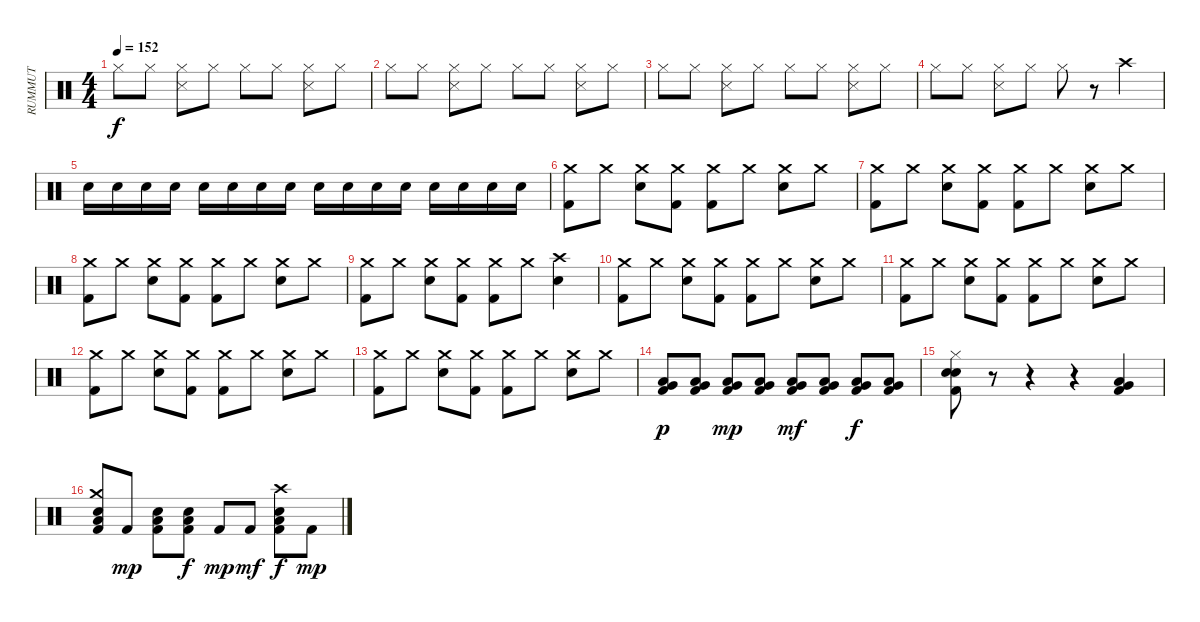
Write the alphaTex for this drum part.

\track ("RUMMUT" "RUMMUT") {instrument percussion}
\staff {score}
\articulation defaults
\ts (4 4)
\tempo 152
\clef neutral
\ks c "Hi-Hat (closed)".8{dy f} "Hi-Hat (closed)".8
("Hi-Hat (closed)" "Snare (side stick) 3").8 "Hi-Hat (closed)".8 "Hi-Hat (closed)".8 "Hi-Hat (closed)".8 ("Hi-Hat (closed)" "Snare (side stick) 3").8 "Hi-Hat (closed)".8 |
"Hi-Hat (closed)".8 "Hi-Hat (closed)".8 ("Hi-Hat (closed)" "Snare (side stick) 3").8 "Hi-Hat (closed)".8 "Hi-Hat (closed)".8 "Hi-Hat (closed)".8 ("Hi-Hat (closed)" "Snare (side stick) 3").8 "Hi-Hat (closed)".8 |
"Hi-Hat (closed)".8 "Hi-Hat (closed)".8 ("Hi-Hat (closed)" "Snare (side stick) 3").8 "Hi-Hat (closed)".8 "Hi-Hat (closed)".8 "Hi-Hat (closed)".8 ("Hi-Hat (closed)" "Snare (side stick) 3").8 "Hi-Hat (closed)".8 |
"Hi-Hat (closed)".8 "Hi-Hat (closed)".8 ("Hi-Hat (closed)" "Snare (side stick) 3").8 "Hi-Hat (closed)".8 "Hi-Hat (closed)".8 r.8 "Crash high (hit)".4 |
"Electric Snare (hit)".16{volume 9} "Electric Snare (hit)".16 "Electric Snare (hit)".16 "Electric Snare (hit)".16 "Electric Snare (hit)".16{volume 10} "Electric Snare (hit)".16 "Electric Snare (hit)".16 "Electric Snare (hit)".16 "Electric Snare (hit)".16{volume 11} "Electric Snare (hit)".16 "Electric Snare (hit)".16 "Electric Snare (hit)".16 "Electric Snare (hit)".16{volume 12} "Electric Snare (hit)".16 "Electric Snare (hit)".16 "Electric Snare (hit)".16 |
("Crash medium (hit)" "Kick (hit) 2").8 "Crash medium (hit)".8 ("Crash medium (hit)" "Electric Snare (hit)").8 ("Crash medium (hit)" "Kick (hit) 2").8 ("Crash medium (hit)" "Kick (hit) 2").8 "Crash medium (hit)".8 ("Crash medium (hit)" "Electric Snare (hit)").8 "Crash medium (hit)".8 |
("Crash medium (hit)" "Kick (hit) 2").8 "Crash medium (hit)".8 ("Crash medium (hit)" "Electric Snare (hit)").8 ("Crash medium (hit)" "Kick (hit) 2").8 ("Crash medium (hit)" "Kick (hit) 2").8 "Crash medium (hit)".8 ("Crash medium (hit)" "Electric Snare (hit)").8 "Crash medium (hit)".8 |
("Crash medium (hit)" "Kick (hit) 2").8 "Crash medium (hit)".8 ("Crash medium (hit)" "Electric Snare (hit)").8 ("Crash medium (hit)" "Kick (hit) 2").8 ("Crash medium (hit)" "Kick (hit) 2").8 "Crash medium (hit)".8 ("Crash medium (hit)" "Electric Snare (hit)").8 "Crash medium (hit)".8 |
("Crash medium (hit)" "Kick (hit) 2").8 "Crash medium (hit)".8 ("Crash medium (hit)" "Electric Snare (hit)").8 ("Crash medium (hit)" "Kick (hit) 2").8 ("Crash medium (hit)" "Kick (hit) 2").8 "Crash medium (hit)".8 ("Crash high (hit)" "Electric Snare (hit)").4 |
("Crash medium (hit)" "Kick (hit) 2").8 "Crash medium (hit)".8 ("Crash medium (hit)" "Electric Snare (hit)").8 ("Crash medium (hit)" "Kick (hit) 2").8 ("Crash medium (hit)" "Kick (hit) 2").8 "Crash medium (hit)".8 ("Crash medium (hit)" "Electric Snare (hit)").8 "Crash medium (hit)".8 |
("Crash medium (hit)" "Kick (hit) 2").8 "Crash medium (hit)".8 ("Crash medium (hit)" "Electric Snare (hit)").8 ("Crash medium (hit)" "Kick (hit) 2").8 ("Crash medium (hit)" "Kick (hit) 2").8 "Crash medium (hit)".8 ("Crash medium (hit)" "Electric Snare (hit)").8 "Crash medium (hit)".8 |
("Crash medium (hit)" "Kick (hit) 2").8 "Crash medium (hit)".8 ("Crash medium (hit)" "Electric Snare (hit)").8 ("Crash medium (hit)" "Kick (hit) 2").8 ("Crash medium (hit)" "Kick (hit) 2").8 "Crash medium (hit)".8 ("Crash medium (hit)" "Electric Snare (hit)").8 "Crash medium (hit)".8 |
("Crash medium (hit)" "Kick (hit) 2").8 "Crash medium (hit)".8 ("Crash medium (hit)" "Electric Snare (hit)").8 ("Crash medium (hit)" "Kick (hit) 2").8 ("Crash medium (hit)" "Kick (hit) 2").8 "Crash medium (hit)".8 ("Crash medium (hit)" "Electric Snare (hit)").8 "Crash medium (hit)".8 |
("Low Tom (hit)" "Very Low Tom (hit)" "Kick (hit) 2").8{dy p} ("Low Tom (hit)" "Very Low Tom (hit)" "Kick (hit) 2").8 ("Low Tom (hit)" "Very Low Tom (hit)" "Kick (hit) 2").8{dy mp} ("Low Tom (hit)" "Very Low Tom (hit)" "Kick (hit) 2").8 ("Low Tom (hit)" "Very Low Tom (hit)" "Kick (hit) 2").8{dy mf} ("Low Tom (hit)" "Very Low Tom (hit)" "Kick (hit) 2").8 ("Low Tom (hit)" "Very Low Tom (hit)" "Kick (hit) 2").8{dy f} ("Low Tom (hit)" "Very Low Tom (hit)" "Kick (hit) 2").8 |
("Hi-Hat (closed)" "Electric Snare (hit)" "Electric Snare (hit)" "Kick (hit) 2").8 r.8 r.4 r.4 ("Very Low Tom (hit)" "Low Floor Tom (hit)" "Kick (hit) 2").4 |
("Crash medium (hit)" "Electric Snare (hit)" "Low Tom (hit)" "Kick (hit) 2").8 "Kick (hit) 2".8{dy mp} ("Electric Snare (hit)" "Low Tom (hit)" "Kick (hit) 2").8 ("Electric Snare (hit)" "Low Tom (hit)" "Kick (hit) 2").8{dy f} "Kick (hit) 2".8{dy mp} "Kick (hit) 2".8{dy mf} ("Crash high (hit)" "Low Tom (hit)" "Electric Snare (hit)" "Kick (hit) 2").8{dy f} "Kick (hit) 2".8{dy mp}
